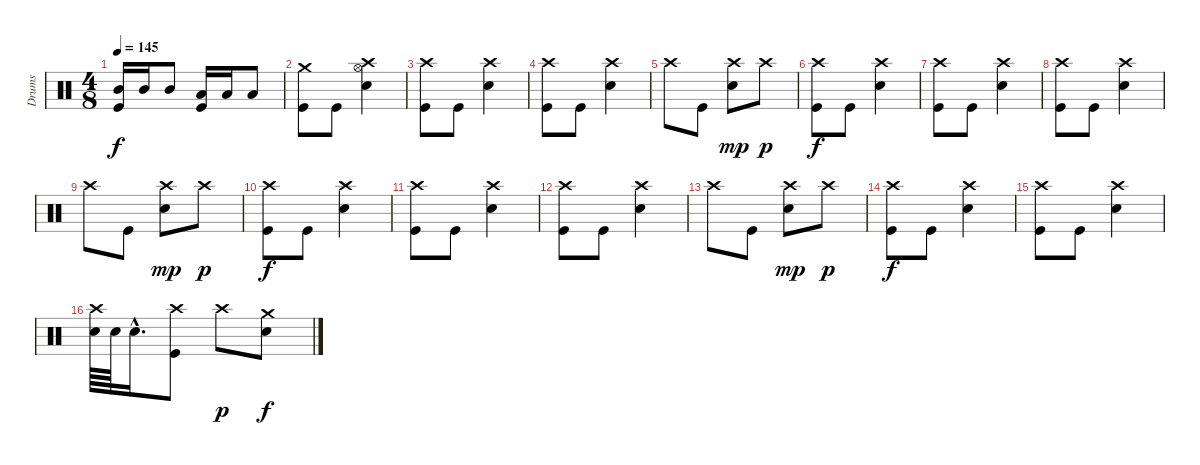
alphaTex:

\track ("Drums" "Drums") {instrument percussion}
\staff {score}
\articulation defaults
\ts (4 8)
\tempo 145
\clef neutral
\ks c
("Mid Tom (hit)" "Kick (hit)").16{dy f} "Mid Tom (hit)".16 "Mid Tom (hit)".8 ("Low Tom (hit)" "Kick (hit)").16 "Low Tom (hit)".16 "Low Tom (hit)".8 |
("Crash medium (hit)" "Kick (hit)").8 "Kick (hit)".8 ("Crash high (hit)" "Hi-Hat (open)" "Snare (hit) 2").4 |
("Crash high (hit)" "Kick (hit)").8 "Kick (hit)".8 ("Crash high (hit)" "Snare (hit) 2").4 |
("Crash high (hit)" "Kick (hit)").8 "Kick (hit)".8 ("Crash high (hit)" "Snare (hit) 2").4 |
"Crash high (hit)".8 "Kick (hit)".8 ("Crash high (hit)" "Snare (hit) 2").8{dy mp} "Crash high (hit)".8{dy p} |
("Crash high (hit)" "Kick (hit)").8{dy f} "Kick (hit)".8 ("Crash high (hit)" "Snare (hit) 2").4 |
("Crash high (hit)" "Kick (hit)").8 "Kick (hit)".8 ("Crash high (hit)" "Snare (hit) 2").4 |
("Crash high (hit)" "Kick (hit)").8 "Kick (hit)".8 ("Crash high (hit)" "Snare (hit) 2").4 |
"Crash high (hit)".8 "Kick (hit)".8 ("Crash high (hit)" "Snare (hit) 2").8{dy mp} "Crash high (hit)".8{dy p} |
("Crash high (hit)" "Kick (hit)").8{dy f} "Kick (hit)".8 ("Crash high (hit)" "Snare (hit) 2").4 |
("Crash high (hit)" "Kick (hit)").8 "Kick (hit)".8 ("Crash high (hit)" "Snare (hit) 2").4 |
("Crash high (hit)" "Kick (hit)").8 "Kick (hit)".8 ("Crash high (hit)" "Snare (hit) 2").4 |
"Crash high (hit)".8 "Kick (hit)".8 ("Crash high (hit)" "Snare (hit) 2").8{dy mp} "Crash high (hit)".8{dy p} |
("Crash high (hit)" "Kick (hit)").8{dy f} "Kick (hit)".8 ("Crash high (hit)" "Snare (hit) 2").4 |
("Crash high (hit)" "Kick (hit)").8 "Kick (hit)".8 ("Crash high (hit)" "Snare (hit) 2").4 |
("Crash high (hit)" "Snare (hit) 2").64 "Snare (hit) 2".64 "Snare (hit) 2"{hac}.16{d} ("Crash high (hit)" "Kick (hit)").8 "Crash high (hit)".8{dy p} ("Crash medium (hit)" "Snare (hit) 2").8{dy f}
